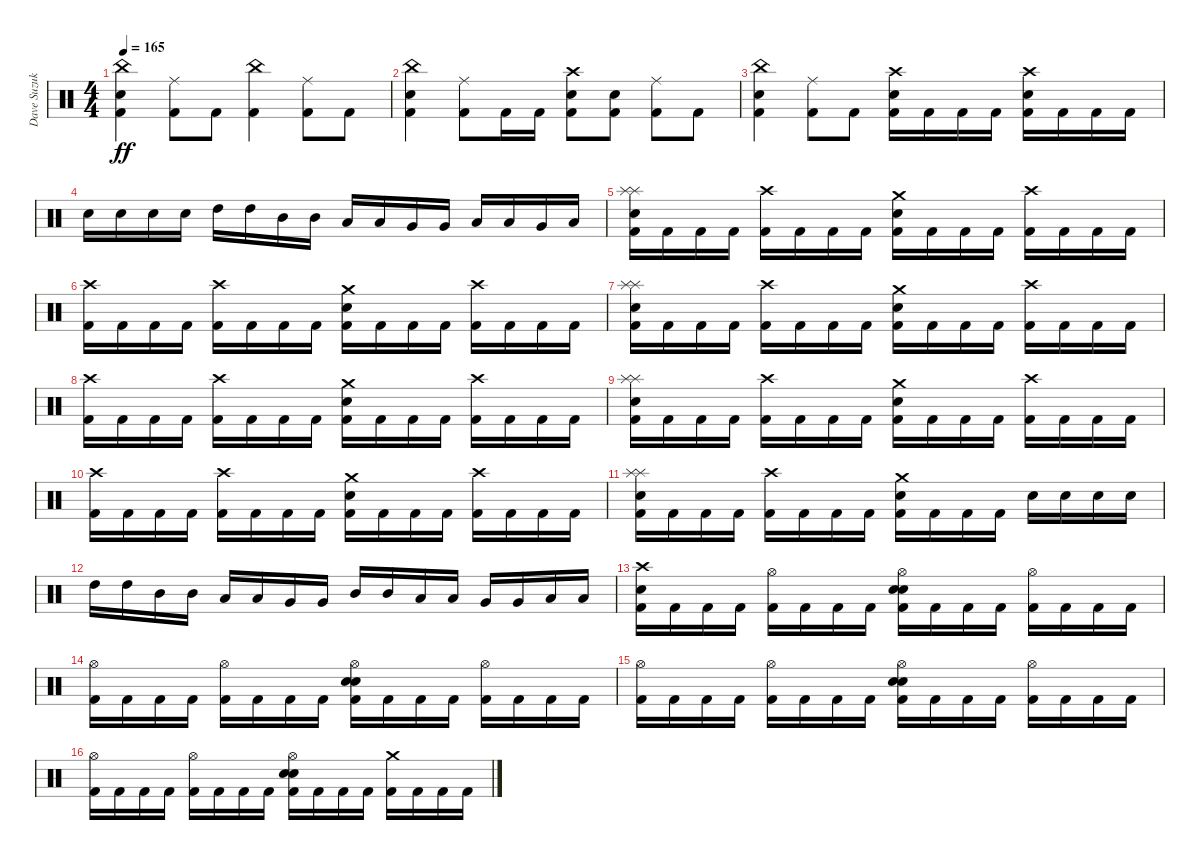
\track ("Dave Suzuki - Drums" "Dave Suzuk") {instrument percussion}
\staff {score}
\articulation defaults
\ts (4 4)
\tempo 165
\clef neutral
\ks c
("China (hit)" "Electric Snare (hit)" "Kick (hit) 2").4{dy ff} ("Ride (middle)" "Kick (hit) 2").8 "Kick (hit) 2".8 ("China (hit)" "Kick (hit) 2").4 ("Ride (middle)" "Kick (hit) 2").8 "Kick (hit) 2".8 |
("China (hit)" "Electric Snare (hit)" "Kick (hit) 2").4 ("Ride (middle)" "Kick (hit) 2").8 "Kick (hit) 2".16 "Kick (hit) 2".16 ("Crash high (hit)" "Electric Snare (hit)" "Kick (hit) 2").8 ("Electric Snare (hit)" "Kick (hit) 2").8 ("Ride (middle)" "Kick (hit) 2").8 "Kick (hit) 2".8 |
("China (hit)" "Electric Snare (hit)" "Kick (hit) 2").4 ("Ride (middle)" "Kick (hit) 2").8 "Kick (hit) 2".8 ("Crash high (hit)" "Electric Snare (hit)" "Kick (hit) 2").16 "Kick (hit) 2".16 "Kick (hit) 2".16 "Kick (hit) 2".16 ("Crash high (hit)" "Electric Snare (hit)" "Kick (hit) 2").16 "Kick (hit) 2".16 "Kick (hit) 2".16 "Kick (hit) 2".16 |
"Electric Snare (hit)".16 "Electric Snare (hit)".16 "Electric Snare (hit)".16 "Electric Snare (hit)".16 "High Tom (hit)".16 "High Tom (hit)".16 "Mid Tom (hit)".16 "Mid Tom (hit)".16 "Low Tom (hit)".16 "Low Tom (hit)".16 "Very Low Tom (hit)".16 "Very Low Tom (hit)".16 "Low Floor Tom (hit)".16 "Low Floor Tom (hit)".16 "Very Low Tom (hit)".16 "Low Floor Tom (hit)".16 |
("Splash (hit)" "Splash (hit)" "Electric Snare (hit)" "Kick (hit) 2").16 "Kick (hit) 2".16 "Kick (hit) 2".16 "Kick (hit) 2".16 ("Crash high (hit)" "Kick (hit) 2").16 "Kick (hit) 2".16 "Kick (hit) 2".16 "Kick (hit) 2".16 ("Crash medium (hit)" "Electric Snare (hit)" "Kick (hit) 2").16 "Kick (hit) 2".16 "Kick (hit) 2".16 "Kick (hit) 2".16 ("Crash high (hit)" "Kick (hit) 2").16 "Kick (hit) 2".16 "Kick (hit) 2".16 "Kick (hit) 2".16 |
("Crash high (hit)" "Kick (hit) 2").16 "Kick (hit) 2".16 "Kick (hit) 2".16 "Kick (hit) 2".16 ("Crash high (hit)" "Kick (hit) 2").16 "Kick (hit) 2".16 "Kick (hit) 2".16 "Kick (hit) 2".16 ("Crash medium (hit)" "Electric Snare (hit)" "Kick (hit) 2").16 "Kick (hit) 2".16 "Kick (hit) 2".16 "Kick (hit) 2".16 ("Crash high (hit)" "Kick (hit) 2").16 "Kick (hit) 2".16 "Kick (hit) 2".16 "Kick (hit) 2".16 |
("Splash (hit)" "Splash (hit)" "Electric Snare (hit)" "Kick (hit) 2").16 "Kick (hit) 2".16 "Kick (hit) 2".16 "Kick (hit) 2".16 ("Crash high (hit)" "Kick (hit) 2").16 "Kick (hit) 2".16 "Kick (hit) 2".16 "Kick (hit) 2".16 ("Crash medium (hit)" "Electric Snare (hit)" "Kick (hit) 2").16 "Kick (hit) 2".16 "Kick (hit) 2".16 "Kick (hit) 2".16 ("Crash high (hit)" "Kick (hit) 2").16 "Kick (hit) 2".16 "Kick (hit) 2".16 "Kick (hit) 2".16 |
("Crash high (hit)" "Kick (hit) 2").16 "Kick (hit) 2".16 "Kick (hit) 2".16 "Kick (hit) 2".16 ("Crash high (hit)" "Kick (hit) 2").16 "Kick (hit) 2".16 "Kick (hit) 2".16 "Kick (hit) 2".16 ("Crash medium (hit)" "Electric Snare (hit)" "Kick (hit) 2").16 "Kick (hit) 2".16 "Kick (hit) 2".16 "Kick (hit) 2".16 ("Crash high (hit)" "Kick (hit) 2").16 "Kick (hit) 2".16 "Kick (hit) 2".16 "Kick (hit) 2".16 |
("Splash (hit)" "Splash (hit)" "Electric Snare (hit)" "Kick (hit) 2").16 "Kick (hit) 2".16 "Kick (hit) 2".16 "Kick (hit) 2".16 ("Crash high (hit)" "Kick (hit) 2").16 "Kick (hit) 2".16 "Kick (hit) 2".16 "Kick (hit) 2".16 ("Crash medium (hit)" "Electric Snare (hit)" "Kick (hit) 2").16 "Kick (hit) 2".16 "Kick (hit) 2".16 "Kick (hit) 2".16 ("Crash high (hit)" "Kick (hit) 2").16 "Kick (hit) 2".16 "Kick (hit) 2".16 "Kick (hit) 2".16 |
("Crash high (hit)" "Kick (hit) 2").16 "Kick (hit) 2".16 "Kick (hit) 2".16 "Kick (hit) 2".16 ("Crash high (hit)" "Kick (hit) 2").16 "Kick (hit) 2".16 "Kick (hit) 2".16 "Kick (hit) 2".16 ("Crash medium (hit)" "Electric Snare (hit)" "Kick (hit) 2").16 "Kick (hit) 2".16 "Kick (hit) 2".16 "Kick (hit) 2".16 ("Crash high (hit)" "Kick (hit) 2").16 "Kick (hit) 2".16 "Kick (hit) 2".16 "Kick (hit) 2".16 |
("Splash (hit)" "Splash (hit)" "Electric Snare (hit)" "Kick (hit) 2").16 "Kick (hit) 2".16 "Kick (hit) 2".16 "Kick (hit) 2".16 ("Crash high (hit)" "Kick (hit) 2").16 "Kick (hit) 2".16 "Kick (hit) 2".16 "Kick (hit) 2".16 ("Crash medium (hit)" "Electric Snare (hit)" "Kick (hit) 2").16 "Kick (hit) 2".16 "Kick (hit) 2".16 "Kick (hit) 2".16 "Electric Snare (hit)".16 "Electric Snare (hit)".16 "Electric Snare (hit)".16 "Electric Snare (hit)".16 |
"High Tom (hit)".16 "High Tom (hit)".16 "Mid Tom (hit)".16 "Mid Tom (hit)".16 "Low Tom (hit)".16 "Low Tom (hit)".16 "Very Low Tom (hit)".16 "Very Low Tom (hit)".16 "Mid Tom (hit)".16 "Mid Tom (hit)".16 "Low Tom (hit)".16 "Low Tom (hit)".16 "Very Low Tom (hit)".16 "Very Low Tom (hit)".16 "Low Floor Tom (hit)".16 "Low Floor Tom (hit)".16 |
("Crash high (hit)" "Electric Snare (hit)" "Kick (hit) 2").16 "Kick (hit) 2".16 "Kick (hit) 2".16 "Kick (hit) 2".16 ("Hi-Hat (open)" "Kick (hit) 2").16 "Kick (hit) 2".16 "Kick (hit) 2".16 "Kick (hit) 2".16 ("Hi-Hat (open)" "Electric Snare (hit)" "Electric Snare (hit)" "Kick (hit) 2").16 "Kick (hit) 2".16 "Kick (hit) 2".16 "Kick (hit) 2".16 ("Hi-Hat (open)" "Kick (hit) 2").16 "Kick (hit) 2".16 "Kick (hit) 2".16 "Kick (hit) 2".16 |
("Hi-Hat (open)" "Kick (hit) 2").16 "Kick (hit) 2".16 "Kick (hit) 2".16 "Kick (hit) 2".16 ("Hi-Hat (open)" "Kick (hit) 2").16 "Kick (hit) 2".16 "Kick (hit) 2".16 "Kick (hit) 2".16 ("Hi-Hat (open)" "Electric Snare (hit)" "Electric Snare (hit)" "Kick (hit) 2").16 "Kick (hit) 2".16 "Kick (hit) 2".16 "Kick (hit) 2".16 ("Hi-Hat (open)" "Kick (hit) 2").16 "Kick (hit) 2".16 "Kick (hit) 2".16 "Kick (hit) 2".16 |
("Hi-Hat (open)" "Kick (hit) 2").16 "Kick (hit) 2".16 "Kick (hit) 2".16 "Kick (hit) 2".16 ("Hi-Hat (open)" "Kick (hit) 2").16 "Kick (hit) 2".16 "Kick (hit) 2".16 "Kick (hit) 2".16 ("Hi-Hat (open)" "Electric Snare (hit)" "Electric Snare (hit)" "Kick (hit) 2").16 "Kick (hit) 2".16 "Kick (hit) 2".16 "Kick (hit) 2".16 ("Hi-Hat (open)" "Kick (hit) 2").16 "Kick (hit) 2".16 "Kick (hit) 2".16 "Kick (hit) 2".16 |
("Hi-Hat (open)" "Kick (hit) 2").16 "Kick (hit) 2".16 "Kick (hit) 2".16 "Kick (hit) 2".16 ("Hi-Hat (open)" "Kick (hit) 2").16 "Kick (hit) 2".16 "Kick (hit) 2".16 "Kick (hit) 2".16 ("Hi-Hat (open)" "Electric Snare (hit)" "Electric Snare (hit)" "Kick (hit) 2").16 "Kick (hit) 2".16 "Kick (hit) 2".16 "Kick (hit) 2".16 ("Crash medium (hit)" "Kick (hit) 2").16 "Kick (hit) 2".16 "Kick (hit) 2".16 "Kick (hit) 2".16
